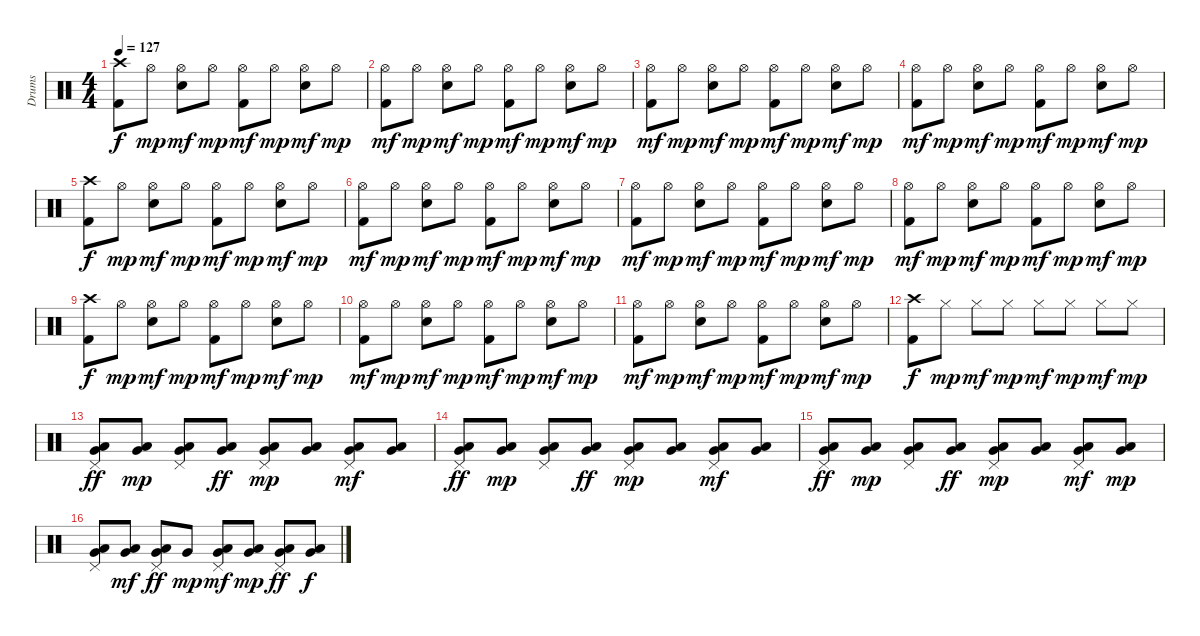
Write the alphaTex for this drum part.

\track ("Drums" "Drums") {instrument percussion}
\staff {score}
\articulation defaults
\ts (4 4)
\tempo 127
\clef neutral
\ks c
("Crash high (hit)" "Kick (hit) 2").8{dy f} "Hi-Hat (open)".8{dy mp} ("Hi-Hat (open)" "Electric Snare (hit)").8{dy mf} "Hi-Hat (open)".8{dy mp} ("Hi-Hat (open)" "Kick (hit) 2").8{dy mf} "Hi-Hat (open)".8{dy mp} ("Hi-Hat (open)" "Electric Snare (hit)").8{dy mf} "Hi-Hat (open)".8{dy mp} |
("Hi-Hat (open)" "Kick (hit) 2").8{dy mf} "Hi-Hat (open)".8{dy mp} ("Hi-Hat (open)" "Electric Snare (hit)").8{dy mf} "Hi-Hat (open)".8{dy mp} ("Hi-Hat (open)" "Kick (hit) 2").8{dy mf} "Hi-Hat (open)".8{dy mp} ("Hi-Hat (open)" "Electric Snare (hit)").8{dy mf} "Hi-Hat (open)".8{dy mp} |
("Hi-Hat (open)" "Kick (hit) 2").8{dy mf} "Hi-Hat (open)".8{dy mp} ("Hi-Hat (open)" "Electric Snare (hit)").8{dy mf} "Hi-Hat (open)".8{dy mp} ("Hi-Hat (open)" "Kick (hit) 2").8{dy mf} "Hi-Hat (open)".8{dy mp} ("Hi-Hat (open)" "Electric Snare (hit)").8{dy mf} "Hi-Hat (open)".8{dy mp} |
("Hi-Hat (open)" "Kick (hit) 2").8{dy mf} "Hi-Hat (open)".8{dy mp} ("Hi-Hat (open)" "Electric Snare (hit)").8{dy mf} "Hi-Hat (open)".8{dy mp} ("Hi-Hat (open)" "Kick (hit) 2").8{dy mf} "Hi-Hat (open)".8{dy mp} ("Hi-Hat (open)" "Electric Snare (hit)").8{dy mf} "Hi-Hat (open)".8{dy mp} |
("Crash high (hit)" "Kick (hit) 2").8{dy f} "Hi-Hat (open)".8{dy mp} ("Hi-Hat (open)" "Electric Snare (hit)").8{dy mf} "Hi-Hat (open)".8{dy mp} ("Hi-Hat (open)" "Kick (hit) 2").8{dy mf} "Hi-Hat (open)".8{dy mp} ("Hi-Hat (open)" "Electric Snare (hit)").8{dy mf} "Hi-Hat (open)".8{dy mp} |
("Hi-Hat (open)" "Kick (hit) 2").8{dy mf} "Hi-Hat (open)".8{dy mp} ("Hi-Hat (open)" "Electric Snare (hit)").8{dy mf} "Hi-Hat (open)".8{dy mp} ("Hi-Hat (open)" "Kick (hit) 2").8{dy mf} "Hi-Hat (open)".8{dy mp} ("Hi-Hat (open)" "Electric Snare (hit)").8{dy mf} "Hi-Hat (open)".8{dy mp} |
("Hi-Hat (open)" "Kick (hit) 2").8{dy mf} "Hi-Hat (open)".8{dy mp} ("Hi-Hat (open)" "Electric Snare (hit)").8{dy mf} "Hi-Hat (open)".8{dy mp} ("Hi-Hat (open)" "Kick (hit) 2").8{dy mf} "Hi-Hat (open)".8{dy mp} ("Hi-Hat (open)" "Electric Snare (hit)").8{dy mf} "Hi-Hat (open)".8{dy mp} |
("Hi-Hat (open)" "Kick (hit) 2").8{dy mf} "Hi-Hat (open)".8{dy mp} ("Hi-Hat (open)" "Electric Snare (hit)").8{dy mf} "Hi-Hat (open)".8{dy mp} ("Hi-Hat (open)" "Kick (hit) 2").8{dy mf} "Hi-Hat (open)".8{dy mp} ("Hi-Hat (open)" "Electric Snare (hit)").8{dy mf} "Hi-Hat (open)".8{dy mp} |
("Crash high (hit)" "Kick (hit) 2").8{dy f} "Hi-Hat (open)".8{dy mp} ("Hi-Hat (open)" "Electric Snare (hit)").8{dy mf} "Hi-Hat (open)".8{dy mp} ("Hi-Hat (open)" "Kick (hit) 2").8{dy mf} "Hi-Hat (open)".8{dy mp} ("Hi-Hat (open)" "Electric Snare (hit)").8{dy mf} "Hi-Hat (open)".8{dy mp} |
("Hi-Hat (open)" "Kick (hit) 2").8{dy mf} "Hi-Hat (open)".8{dy mp} ("Hi-Hat (open)" "Electric Snare (hit)").8{dy mf} "Hi-Hat (open)".8{dy mp} ("Hi-Hat (open)" "Kick (hit) 2").8{dy mf} "Hi-Hat (open)".8{dy mp} ("Hi-Hat (open)" "Electric Snare (hit)").8{dy mf} "Hi-Hat (open)".8{dy mp} |
("Hi-Hat (open)" "Kick (hit) 2").8{dy mf} "Hi-Hat (open)".8{dy mp} ("Hi-Hat (open)" "Electric Snare (hit)").8{dy mf} "Hi-Hat (open)".8{dy mp} ("Hi-Hat (open)" "Kick (hit) 2").8{dy mf} "Hi-Hat (open)".8{dy mp} ("Hi-Hat (open)" "Electric Snare (hit)").8{dy mf} "Hi-Hat (open)".8{dy mp} |
("Crash high (hit)" "Kick (hit) 2").8{dy f} "Hi-Hat (closed)".8{dy mp} "Hi-Hat (closed)".8{dy mf} "Hi-Hat (closed)".8{dy mp} "Hi-Hat (closed)".8{dy mf} "Hi-Hat (closed)".8{dy mp} "Hi-Hat (closed)".8{dy mf} "Hi-Hat (closed)".8{dy mp} |
("Pedal Hi-Hat (hit)" "Very Low Tom (hit)" "Low Floor Tom (hit)").8{dy ff} ("Very Low Tom (hit)" "Low Floor Tom (hit)").8{dy mp} ("Pedal Hi-Hat (hit)" "Very Low Tom (hit)" "Low Floor Tom (hit)").8 ("Very Low Tom (hit)" "Low Floor Tom (hit)").8{dy ff} ("Pedal Hi-Hat (hit)" "Very Low Tom (hit)" "Low Floor Tom (hit)").8{dy mp} ("Very Low Tom (hit)" "Low Floor Tom (hit)").8 ("Pedal Hi-Hat (hit)" "Very Low Tom (hit)" "Low Floor Tom (hit)").8{dy mf} ("Very Low Tom (hit)" "Low Floor Tom (hit)").8 |
("Pedal Hi-Hat (hit)" "Very Low Tom (hit)" "Low Floor Tom (hit)").8{dy ff} ("Very Low Tom (hit)" "Low Floor Tom (hit)").8{dy mp} ("Pedal Hi-Hat (hit)" "Very Low Tom (hit)" "Low Floor Tom (hit)").8 ("Very Low Tom (hit)" "Low Floor Tom (hit)").8{dy ff} ("Pedal Hi-Hat (hit)" "Very Low Tom (hit)" "Low Floor Tom (hit)").8{dy mp} ("Very Low Tom (hit)" "Low Floor Tom (hit)").8 ("Pedal Hi-Hat (hit)" "Very Low Tom (hit)" "Low Floor Tom (hit)").8{dy mf} ("Very Low Tom (hit)" "Low Floor Tom (hit)").8 |
("Pedal Hi-Hat (hit)" "Very Low Tom (hit)" "Low Floor Tom (hit)").8{dy ff} ("Very Low Tom (hit)" "Low Floor Tom (hit)").8{dy mp} ("Pedal Hi-Hat (hit)" "Very Low Tom (hit)" "Low Floor Tom (hit)").8 ("Very Low Tom (hit)" "Low Floor Tom (hit)").8{dy ff} ("Pedal Hi-Hat (hit)" "Very Low Tom (hit)" "Low Floor Tom (hit)").8{dy mp} ("Very Low Tom (hit)" "Low Floor Tom (hit)").8 ("Pedal Hi-Hat (hit)" "Very Low Tom (hit)" "Low Floor Tom (hit)").8{dy mf} ("Very Low Tom (hit)" "Low Floor Tom (hit)").8{dy mp} |
("Pedal Hi-Hat (hit)" "Very Low Tom (hit)" "Low Floor Tom (hit)").8 ("Very Low Tom (hit)" "Low Floor Tom (hit)").8{dy mf} ("Pedal Hi-Hat (hit)" "Very Low Tom (hit)" "Low Floor Tom (hit)").8{dy ff} "Very Low Tom (hit)".8{dy mp} ("Pedal Hi-Hat (hit)" "Very Low Tom (hit)" "Low Floor Tom (hit)").8{dy mf} ("Very Low Tom (hit)" "Low Floor Tom (hit)").8{dy mp} ("Pedal Hi-Hat (hit)" "Very Low Tom (hit)" "Low Floor Tom (hit)").8{dy ff} ("Very Low Tom (hit)" "Low Floor Tom (hit)").8{dy f}
